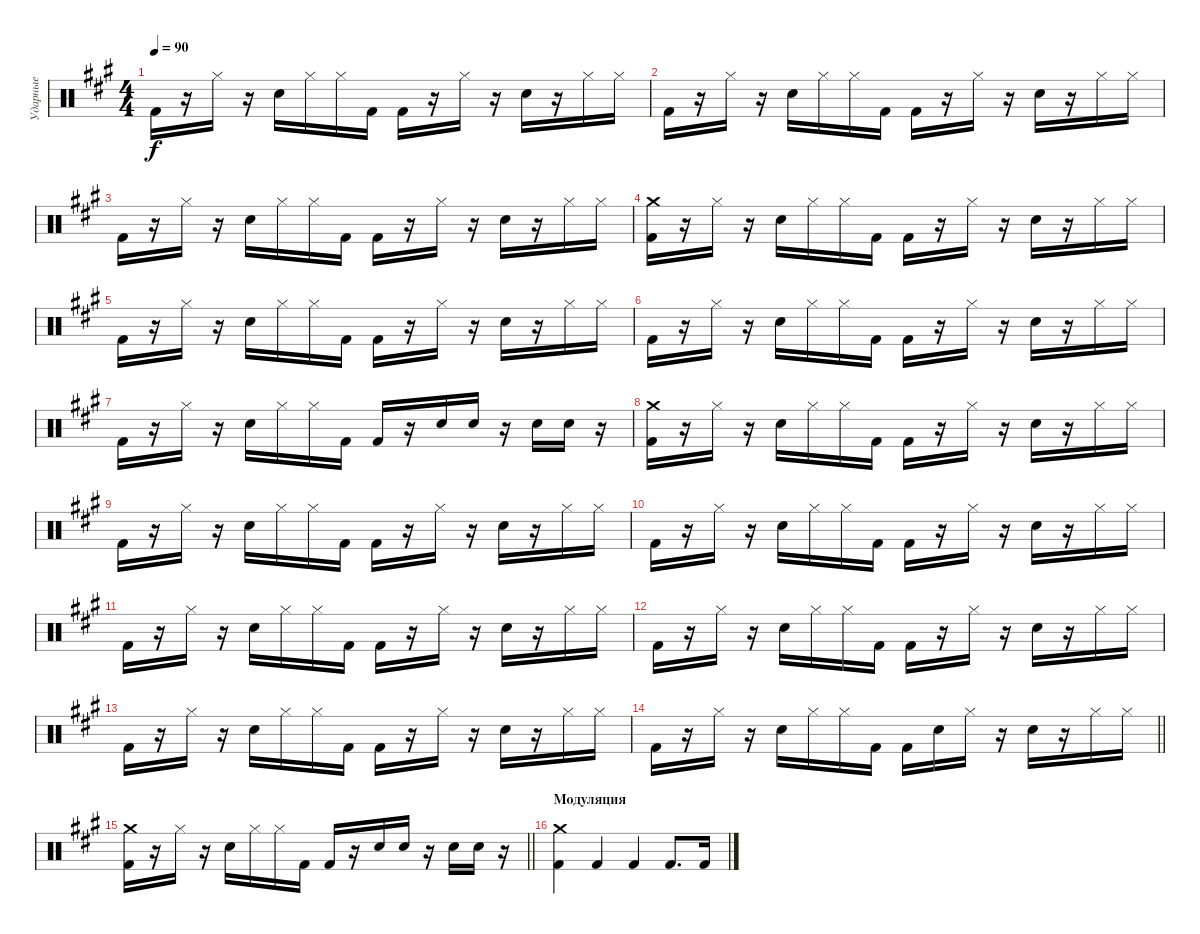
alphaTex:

\track ("Ударные" "Ударные") {instrument percussion}
\staff {score}
\articulation defaults
\ts (4 4)
\tempo 90
\clef neutral
\ks f#minor "Kick (hit) 2".16{dy f}
r.16 "Hi-Hat (closed)".16 r.16 "Electric Snare (hit)".16 "Hi-Hat (closed)".16 "Hi-Hat (closed)".16 "Kick (hit) 2".16 "Kick (hit) 2".16 r.16 "Hi-Hat (closed)".16 r.16 "Electric Snare (hit)".16 r.16 "Hi-Hat (closed)".16 "Hi-Hat (closed)".16 |
"Kick (hit) 2".16 r.16 "Hi-Hat (closed)".16 r.16 "Electric Snare (hit)".16 "Hi-Hat (closed)".16 "Hi-Hat (closed)".16 "Kick (hit) 2".16 "Kick (hit) 2".16 r.16 "Hi-Hat (closed)".16 r.16 "Electric Snare (hit)".16 r.16 "Hi-Hat (closed)".16 "Hi-Hat (closed)".16 |
"Kick (hit) 2".16 r.16 "Hi-Hat (closed)".16 r.16 "Electric Snare (hit)".16 "Hi-Hat (closed)".16 "Hi-Hat (closed)".16 "Kick (hit) 2".16 "Kick (hit) 2".16 r.16 "Hi-Hat (closed)".16 r.16 "Electric Snare (hit)".16 r.16 "Hi-Hat (closed)".16 "Hi-Hat (closed)".16 |
("Crash medium (hit)" "Kick (hit) 2").16 r.16 "Hi-Hat (closed)".16 r.16 "Electric Snare (hit)".16 "Hi-Hat (closed)".16 "Hi-Hat (closed)".16 "Kick (hit) 2".16 "Kick (hit) 2".16 r.16 "Hi-Hat (closed)".16 r.16 "Electric Snare (hit)".16 r.16 "Hi-Hat (closed)".16 "Hi-Hat (closed)".16 |
"Kick (hit) 2".16 r.16 "Hi-Hat (closed)".16 r.16 "Electric Snare (hit)".16 "Hi-Hat (closed)".16 "Hi-Hat (closed)".16 "Kick (hit) 2".16 "Kick (hit) 2".16 r.16 "Hi-Hat (closed)".16 r.16 "Electric Snare (hit)".16 r.16 "Hi-Hat (closed)".16 "Hi-Hat (closed)".16 |
"Kick (hit) 2".16 r.16 "Hi-Hat (closed)".16 r.16 "Electric Snare (hit)".16 "Hi-Hat (closed)".16 "Hi-Hat (closed)".16 "Kick (hit) 2".16 "Kick (hit) 2".16 r.16 "Hi-Hat (closed)".16 r.16 "Electric Snare (hit)".16 r.16 "Hi-Hat (closed)".16 "Hi-Hat (closed)".16 |
"Kick (hit) 2".16 r.16 "Hi-Hat (closed)".16 r.16 "Electric Snare (hit)".16 "Hi-Hat (closed)".16 "Hi-Hat (closed)".16 "Kick (hit) 2".16 "Kick (hit) 2".16 r.16 "Electric Snare (hit)".16 "Electric Snare (hit)".16 r.16 "Electric Snare (hit)".16 "Electric Snare (hit)".16 r.16 |
("Crash medium (hit)" "Kick (hit) 2").16 r.16 "Hi-Hat (closed)".16 r.16 "Electric Snare (hit)".16 "Hi-Hat (closed)".16 "Hi-Hat (closed)".16 "Kick (hit) 2".16 "Kick (hit) 2".16 r.16 "Hi-Hat (closed)".16 r.16 "Electric Snare (hit)".16 r.16 "Hi-Hat (closed)".16 "Hi-Hat (closed)".16 |
"Kick (hit) 2".16 r.16 "Hi-Hat (closed)".16 r.16 "Electric Snare (hit)".16 "Hi-Hat (closed)".16 "Hi-Hat (closed)".16 "Kick (hit) 2".16 "Kick (hit) 2".16 r.16 "Hi-Hat (closed)".16 r.16 "Electric Snare (hit)".16 r.16 "Hi-Hat (closed)".16 "Hi-Hat (closed)".16 |
"Kick (hit) 2".16 r.16 "Hi-Hat (closed)".16 r.16 "Electric Snare (hit)".16 "Hi-Hat (closed)".16 "Hi-Hat (closed)".16 "Kick (hit) 2".16 "Kick (hit) 2".16 r.16 "Hi-Hat (closed)".16 r.16 "Electric Snare (hit)".16 r.16 "Hi-Hat (closed)".16 "Hi-Hat (closed)".16 |
"Kick (hit) 2".16 r.16 "Hi-Hat (closed)".16 r.16 "Electric Snare (hit)".16 "Hi-Hat (closed)".16 "Hi-Hat (closed)".16 "Kick (hit) 2".16 "Kick (hit) 2".16 r.16 "Hi-Hat (closed)".16 r.16 "Electric Snare (hit)".16 r.16 "Hi-Hat (closed)".16 "Hi-Hat (closed)".16 |
"Kick (hit) 2".16 r.16 "Hi-Hat (closed)".16 r.16 "Electric Snare (hit)".16 "Hi-Hat (closed)".16 "Hi-Hat (closed)".16 "Kick (hit) 2".16 "Kick (hit) 2".16 r.16 "Hi-Hat (closed)".16 r.16 "Electric Snare (hit)".16 r.16 "Hi-Hat (closed)".16 "Hi-Hat (closed)".16 |
"Kick (hit) 2".16 r.16 "Hi-Hat (closed)".16 r.16 "Electric Snare (hit)".16 "Hi-Hat (closed)".16 "Hi-Hat (closed)".16 "Kick (hit) 2".16 "Kick (hit) 2".16 r.16 "Hi-Hat (closed)".16 r.16 "Electric Snare (hit)".16 r.16 "Hi-Hat (closed)".16 "Hi-Hat (closed)".16 |
\barLineRight lightlight "Kick (hit) 2".16
r.16 "Hi-Hat (closed)".16 r.16 "Electric Snare (hit)".16 "Hi-Hat (closed)".16 "Hi-Hat (closed)".16 "Kick (hit) 2".16 "Kick (hit) 2".16 "Electric Snare (hit)".16 "Hi-Hat (closed)".16 r.16 "Electric Snare (hit)".16 r.16 "Hi-Hat (closed)".16 "Hi-Hat (closed)".16 |
\section ("" "")
\barLineRight lightlight
("Crash medium (hit)" "Kick (hit) 2").16 r.16 "Hi-Hat (closed)".16 r.16 "Electric Snare (hit)".16 "Hi-Hat (closed)".16 "Hi-Hat (closed)".16 "Kick (hit) 2".16 "Kick (hit) 2".16 r.16 "Electric Snare (hit)".16 "Electric Snare (hit)".16 r.16 "Electric Snare (hit)".16 "Electric Snare (hit)".16 r.16 |
\section ("" "Модуляция")
("Kick (hit) 2" "Crash medium (hit)").4 "Kick (hit) 2".4 "Kick (hit) 2".4 "Kick (hit) 2".8{d} "Kick (hit) 2".16
